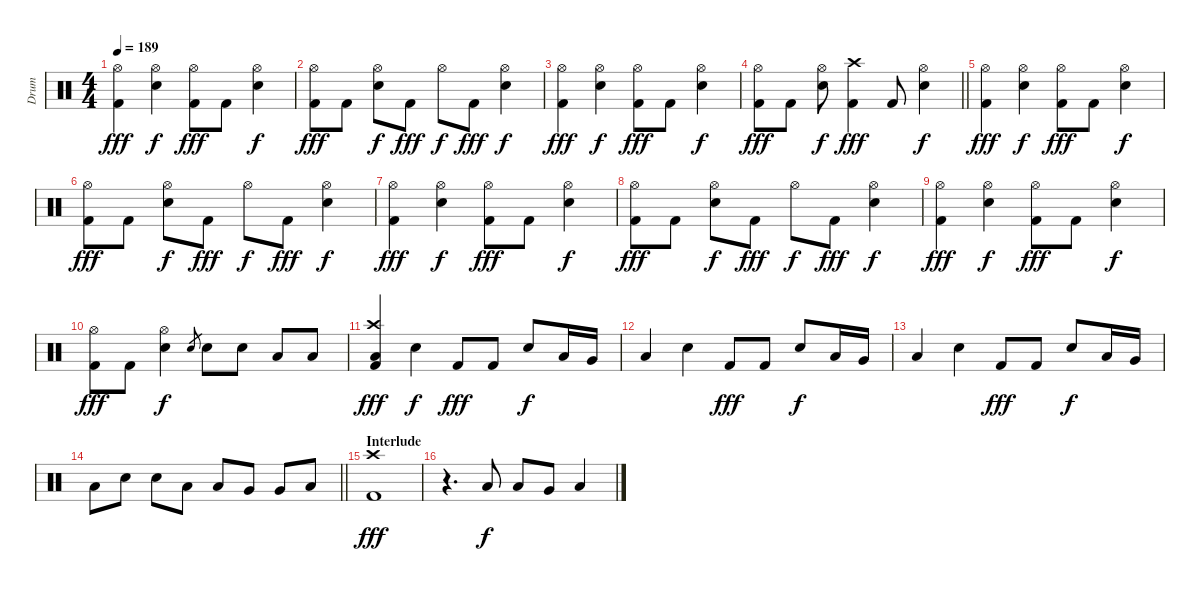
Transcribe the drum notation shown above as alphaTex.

\track ("Drum" "Drum") {instrument percussion}
\staff {score}
\articulation defaults
\ts (4 4)
\tempo 189
\clef neutral
\ks c
("Hi-Hat (open)" "Kick (hit) 2").4{dy fff} ("Hi-Hat (open)" "Electric Snare (hit)").4{dy f} ("Hi-Hat (open)" "Kick (hit) 2").8{dy fff} "Kick (hit) 2".8 ("Hi-Hat (open)" "Electric Snare (hit)").4{dy f} |
("Hi-Hat (open)" "Kick (hit) 2").8{dy fff} "Kick (hit) 2".8 ("Hi-Hat (open)" "Electric Snare (hit)").8{dy f} "Kick (hit) 2".8{dy fff} "Hi-Hat (open)".8{dy f} "Kick (hit) 2".8{dy fff} ("Hi-Hat (open)" "Electric Snare (hit)").4{dy f} |
("Hi-Hat (open)" "Kick (hit) 2").4{dy fff} ("Hi-Hat (open)" "Electric Snare (hit)").4{dy f} ("Hi-Hat (open)" "Kick (hit) 2").8{dy fff} "Kick (hit) 2".8 ("Hi-Hat (open)" "Electric Snare (hit)").4{dy f} |
\barLineRight lightlight
("Hi-Hat (open)" "Kick (hit) 2").8{dy fff} "Kick (hit) 2".8 ("Hi-Hat (open)" "Electric Snare (hit)").8{dy f} ("Crash high (hit)" "Kick (hit) 2").4{dy fff} "Kick (hit) 2".8 ("Hi-Hat (open)" "Electric Snare (hit)").4{dy f} |
("Hi-Hat (open)" "Kick (hit) 2").4{dy fff} ("Hi-Hat (open)" "Electric Snare (hit)").4{dy f} ("Hi-Hat (open)" "Kick (hit) 2").8{dy fff} "Kick (hit) 2".8 ("Hi-Hat (open)" "Electric Snare (hit)").4{dy f} |
("Hi-Hat (open)" "Kick (hit) 2").8{dy fff} "Kick (hit) 2".8 ("Hi-Hat (open)" "Electric Snare (hit)").8{dy f} "Kick (hit) 2".8{dy fff} "Hi-Hat (open)".8{dy f} "Kick (hit) 2".8{dy fff} ("Hi-Hat (open)" "Electric Snare (hit)").4{dy f} |
("Hi-Hat (open)" "Kick (hit) 2").4{dy fff} ("Hi-Hat (open)" "Electric Snare (hit)").4{dy f} ("Hi-Hat (open)" "Kick (hit) 2").8{dy fff} "Kick (hit) 2".8 ("Hi-Hat (open)" "Electric Snare (hit)").4{dy f} |
("Hi-Hat (open)" "Kick (hit) 2").8{dy fff} "Kick (hit) 2".8 ("Hi-Hat (open)" "Electric Snare (hit)").8{dy f} "Kick (hit) 2".8{dy fff} "Hi-Hat (open)".8{dy f} "Kick (hit) 2".8{dy fff} ("Hi-Hat (open)" "Electric Snare (hit)").4{dy f} |
("Hi-Hat (open)" "Kick (hit) 2").4{dy fff} ("Hi-Hat (open)" "Electric Snare (hit)").4{dy f} ("Hi-Hat (open)" "Kick (hit) 2").8{dy fff} "Kick (hit) 2".8 ("Hi-Hat (open)" "Electric Snare (hit)").4{dy f} |
("Hi-Hat (open)" "Kick (hit) 2").8{dy fff} "Kick (hit) 2".8 ("Hi-Hat (open)" "Electric Snare (hit)").4{dy f} "Electric Snare (hit)".8{gr} "Electric Snare (hit)".8 "Electric Snare (hit)".8 "Low Tom (hit)".8 "Low Tom (hit)".8 |
("Crash high (hit)" "Low Floor Tom (hit)" "Kick (hit) 2").4{dy fff} "Electric Snare (hit)".4{dy f} "Kick (hit) 2".8{dy fff} "Kick (hit) 2".8 "Electric Snare (hit)".8{dy f} "Low Tom (hit)".16 "Very Low Tom (hit)".16 |
"Low Floor Tom (hit)".4 "Electric Snare (hit)".4 "Kick (hit) 2".8{dy fff} "Kick (hit) 2".8 "Electric Snare (hit)".8{dy f} "Low Tom (hit)".16 "Very Low Tom (hit)".16 |
"Low Floor Tom (hit)".4 "Electric Snare (hit)".4 "Kick (hit) 2".8{dy fff} "Kick (hit) 2".8 "Electric Snare (hit)".8{dy f} "Low Tom (hit)".16 "Very Low Tom (hit)".16 |
\barLineRight lightlight "Low Floor Tom (hit)".8 "Electric Snare (hit)".8 "Electric Snare (hit)".8 "Low Tom (hit)".8 "Low Tom (hit)".8 "Very Low Tom (hit)".8 "Very Low Tom (hit)".8 "Low Floor Tom (hit)".8
|
\section ("" "Interlude")
("Crash high (hit)" "Kick (hit) 2").1{dy fff} |
r.4{d} "Low Tom (hit)".8{dy f} "Low Tom (hit)".8 "Very Low Tom (hit)".8 "Low Floor Tom (hit)".4
